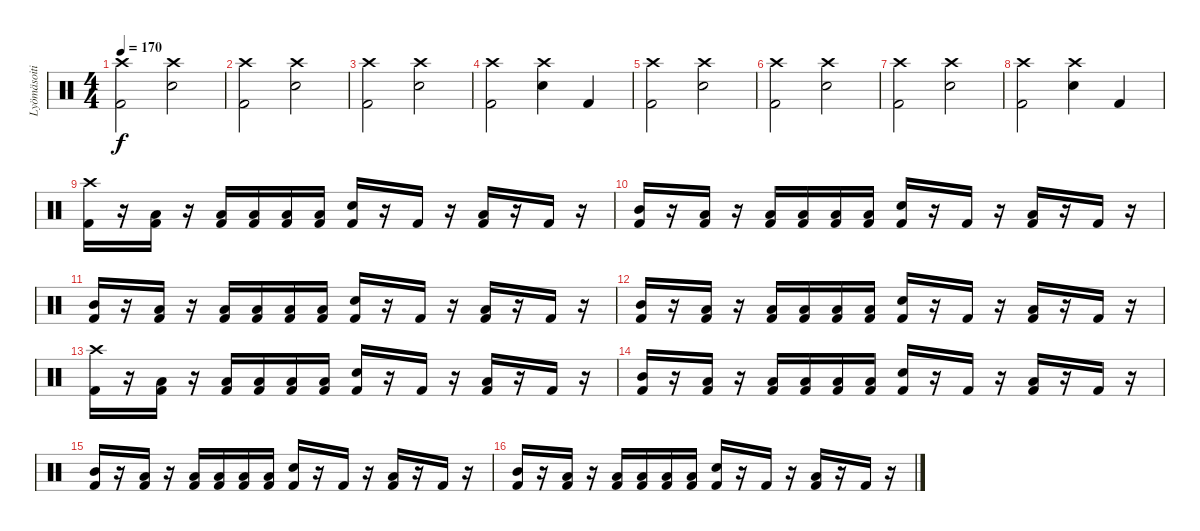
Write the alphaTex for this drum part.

\track ("Lyömäsoitin" "Lyömäsoiti") {instrument percussion}
\staff {score}
\articulation defaults
\ts (4 4)
\tempo 170
\clef neutral
\ks c
("Kick (hit) 2" "Crash high (hit)").2{dy f} ("Electric Snare (hit)" "Crash high (hit)").2 |
("Kick (hit) 2" "Crash high (hit)").2 ("Electric Snare (hit)" "Crash high (hit)").2 |
("Kick (hit) 2" "Crash high (hit)").2 ("Electric Snare (hit)" "Crash high (hit)").2 |
("Kick (hit) 2" "Crash high (hit)").2 ("Electric Snare (hit)" "Crash high (hit)").4 "Kick (hit) 2".4 |
("Kick (hit) 2" "Crash high (hit)").2 ("Electric Snare (hit)" "Crash high (hit)").2 |
("Kick (hit) 2" "Crash high (hit)").2 ("Electric Snare (hit)" "Crash high (hit)").2 |
("Kick (hit) 2" "Crash high (hit)").2 ("Electric Snare (hit)" "Crash high (hit)").2 |
("Kick (hit) 2" "Crash high (hit)").2 ("Electric Snare (hit)" "Crash high (hit)").4 "Kick (hit) 2".4 |
("Kick (hit) 2" "Crash high (hit)").16 r.16 ("Kick (hit) 2" "Low Tom (hit)").16 r.16 ("Kick (hit) 2" "Low Tom (hit)").16 ("Kick (hit) 2" "Low Tom (hit)").16 ("Kick (hit) 2" "Low Tom (hit)").16 ("Kick (hit) 2" "Low Tom (hit)").16 ("Kick (hit) 2" "Electric Snare (hit)").16 r.16 "Kick (hit) 2".16 r.16 ("Kick (hit) 2" "Low Floor Tom (hit)").16 r.16 "Kick (hit) 2".16 r.16 |
("Kick (hit) 2" "Mid Tom (hit)").16 r.16 ("Kick (hit) 2" "Low Tom (hit)").16 r.16 ("Kick (hit) 2" "Low Tom (hit)").16 ("Kick (hit) 2" "Low Tom (hit)").16 ("Kick (hit) 2" "Low Tom (hit)").16 ("Kick (hit) 2" "Low Tom (hit)").16 ("Kick (hit) 2" "Electric Snare (hit)").16 r.16 "Kick (hit) 2".16 r.16 ("Kick (hit) 2" "Low Floor Tom (hit)").16 r.16 "Kick (hit) 2".16 r.16 |
("Kick (hit) 2" "Mid Tom (hit)").16 r.16 ("Kick (hit) 2" "Low Tom (hit)").16 r.16 ("Kick (hit) 2" "Low Tom (hit)").16 ("Kick (hit) 2" "Low Tom (hit)").16 ("Kick (hit) 2" "Low Tom (hit)").16 ("Kick (hit) 2" "Low Tom (hit)").16 ("Kick (hit) 2" "Electric Snare (hit)").16 r.16 "Kick (hit) 2".16 r.16 ("Kick (hit) 2" "Low Floor Tom (hit)").16 r.16 "Kick (hit) 2".16 r.16 |
("Kick (hit) 2" "Mid Tom (hit)").16 r.16 ("Kick (hit) 2" "Low Tom (hit)").16 r.16 ("Kick (hit) 2" "Low Tom (hit)").16 ("Kick (hit) 2" "Low Tom (hit)").16 ("Kick (hit) 2" "Low Tom (hit)").16 ("Kick (hit) 2" "Low Tom (hit)").16 ("Kick (hit) 2" "Electric Snare (hit)").16 r.16 "Kick (hit) 2".16 r.16 ("Kick (hit) 2" "Low Floor Tom (hit)").16 r.16 "Kick (hit) 2".16 r.16 |
("Kick (hit) 2" "Crash high (hit)").16 r.16 ("Kick (hit) 2" "Low Tom (hit)").16 r.16 ("Kick (hit) 2" "Low Tom (hit)").16 ("Kick (hit) 2" "Low Tom (hit)").16 ("Kick (hit) 2" "Low Tom (hit)").16 ("Kick (hit) 2" "Low Tom (hit)").16 ("Kick (hit) 2" "Electric Snare (hit)").16 r.16 "Kick (hit) 2".16 r.16 ("Kick (hit) 2" "Low Floor Tom (hit)").16 r.16 "Kick (hit) 2".16 r.16 |
("Kick (hit) 2" "Mid Tom (hit)").16 r.16 ("Kick (hit) 2" "Low Tom (hit)").16 r.16 ("Kick (hit) 2" "Low Tom (hit)").16 ("Kick (hit) 2" "Low Tom (hit)").16 ("Kick (hit) 2" "Low Tom (hit)").16 ("Kick (hit) 2" "Low Tom (hit)").16 ("Kick (hit) 2" "Electric Snare (hit)").16 r.16 "Kick (hit) 2".16 r.16 ("Kick (hit) 2" "Low Floor Tom (hit)").16 r.16 "Kick (hit) 2".16 r.16 |
("Kick (hit) 2" "Mid Tom (hit)").16 r.16 ("Kick (hit) 2" "Low Tom (hit)").16 r.16 ("Kick (hit) 2" "Low Tom (hit)").16 ("Kick (hit) 2" "Low Tom (hit)").16 ("Kick (hit) 2" "Low Tom (hit)").16 ("Kick (hit) 2" "Low Tom (hit)").16 ("Kick (hit) 2" "Electric Snare (hit)").16 r.16 "Kick (hit) 2".16 r.16 ("Kick (hit) 2" "Low Floor Tom (hit)").16 r.16 "Kick (hit) 2".16 r.16 |
("Kick (hit) 2" "Mid Tom (hit)").16 r.16 ("Kick (hit) 2" "Low Tom (hit)").16 r.16 ("Kick (hit) 2" "Low Tom (hit)").16 ("Kick (hit) 2" "Low Tom (hit)").16 ("Kick (hit) 2" "Low Tom (hit)").16 ("Kick (hit) 2" "Low Tom (hit)").16 ("Kick (hit) 2" "Electric Snare (hit)").16 r.16 "Kick (hit) 2".16 r.16 ("Kick (hit) 2" "Low Floor Tom (hit)").16 r.16 "Kick (hit) 2".16 r.16
